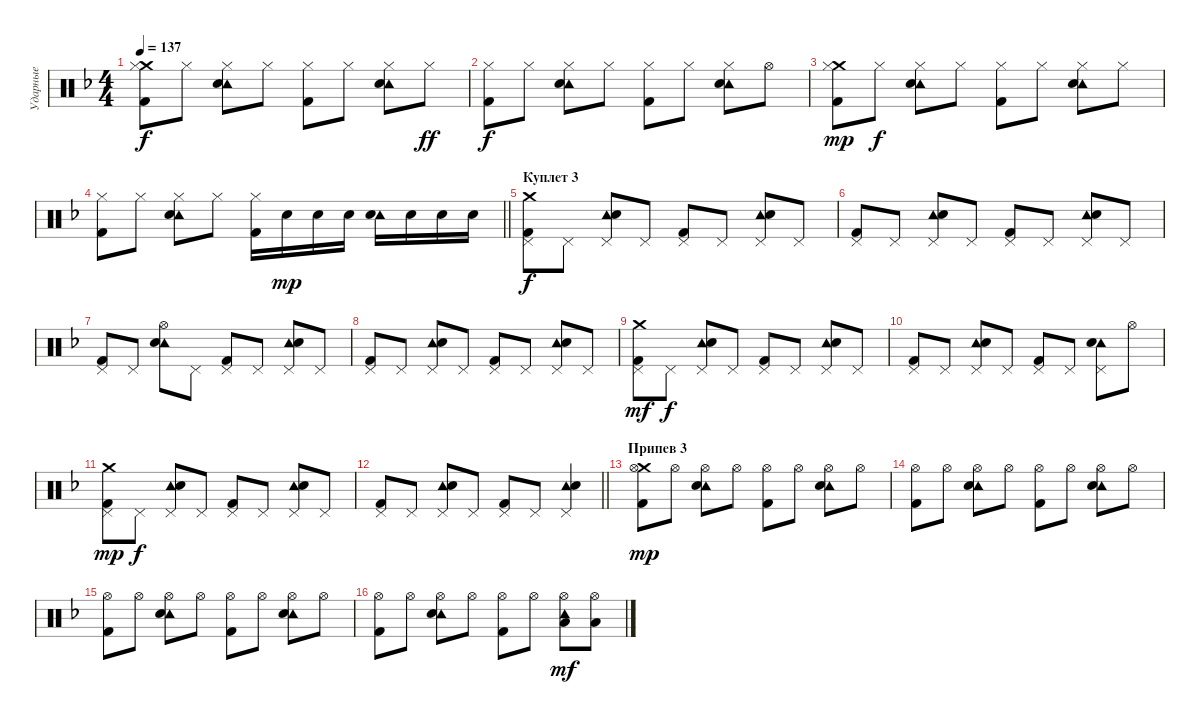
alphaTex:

\track ("Ударные" "Ударные") {instrument percussion}
\staff {score}
\articulation defaults
\ts (4 4)
\tempo 137
\clef neutral
\ks dminor
("Crash medium (hit)" "Hi-Hat (closed)" "Kick (hit) 2").8{dy f} "Hi-Hat (closed)".8 ("Tambourine (hit)" "Hi-Hat (closed)" "Electric Snare (hit)").8 "Hi-Hat (closed)".8 ("Hi-Hat (closed)" "Kick (hit) 2").8 "Hi-Hat (closed)".8 ("Tambourine (hit)" "Hi-Hat (closed)" "Electric Snare (hit)").8 "Hi-Hat (closed)".8{dy ff} |
("Hi-Hat (closed)" "Kick (hit) 2").8{dy f} "Hi-Hat (closed)".8 ("Tambourine (hit)" "Hi-Hat (closed)" "Electric Snare (hit)").8 "Hi-Hat (closed)".8 ("Hi-Hat (closed)" "Kick (hit) 2").8 "Hi-Hat (closed)".8 ("Tambourine (hit)" "Hi-Hat (closed)" "Electric Snare (hit)").8 "Hi-Hat (open)".8 |
("Crash medium (hit)" "Hi-Hat (closed)" "Kick (hit) 2").8{dy mp} "Hi-Hat (closed)".8{dy f} ("Tambourine (hit)" "Hi-Hat (closed)" "Electric Snare (hit)").8 "Hi-Hat (closed)".8 ("Hi-Hat (closed)" "Kick (hit) 2").8 "Hi-Hat (closed)".8 ("Tambourine (hit)" "Hi-Hat (closed)" "Electric Snare (hit)").8 "Hi-Hat (closed)".8 |
\barLineRight lightlight
("Hi-Hat (closed)" "Kick (hit) 2").8 "Hi-Hat (closed)".8 ("Tambourine (hit)" "Hi-Hat (closed)" "Electric Snare (hit)").8 "Hi-Hat (closed)".8 ("Hi-Hat (closed)" "Kick (hit) 2").16 "Electric Snare (hit)".16{dy mp} "Electric Snare (hit)".16 "Electric Snare (hit)".16 ("Tambourine (hit)" "Electric Snare (hit)").16 "Electric Snare (hit)".16 "Electric Snare (hit)".16 "Electric Snare (hit)".16 |
\section ("" "Куплет 3")
("Crash medium (hit)" "Pedal Hi-Hat (hit)" "Kick (hit) 2").8{dy f} "Pedal Hi-Hat (hit)".8 ("Tambourine (hit)" "Pedal Hi-Hat (hit)" "Electric Snare (hit)").8 "Pedal Hi-Hat (hit)".8 ("Pedal Hi-Hat (hit)" "Kick (hit) 2").8 "Pedal Hi-Hat (hit)".8 ("Tambourine (hit)" "Pedal Hi-Hat (hit)" "Electric Snare (hit)").8 "Pedal Hi-Hat (hit)".8 |
("Pedal Hi-Hat (hit)" "Kick (hit) 2").8 "Pedal Hi-Hat (hit)".8 ("Tambourine (hit)" "Pedal Hi-Hat (hit)" "Electric Snare (hit)").8 "Pedal Hi-Hat (hit)".8 ("Pedal Hi-Hat (hit)" "Kick (hit) 2").8 "Pedal Hi-Hat (hit)".8 ("Tambourine (hit)" "Pedal Hi-Hat (hit)" "Electric Snare (hit)").8 "Pedal Hi-Hat (hit)".8 |
("Pedal Hi-Hat (hit)" "Kick (hit) 2").8 "Pedal Hi-Hat (hit)".8 ("Tambourine (hit)" "Hi-Hat (open)" "Electric Snare (hit)").8 "Pedal Hi-Hat (hit)".8 ("Pedal Hi-Hat (hit)" "Kick (hit) 2").8 "Pedal Hi-Hat (hit)".8 ("Tambourine (hit)" "Pedal Hi-Hat (hit)" "Electric Snare (hit)").8 "Pedal Hi-Hat (hit)".8 |
("Pedal Hi-Hat (hit)" "Kick (hit) 2").8 "Pedal Hi-Hat (hit)".8 ("Tambourine (hit)" "Pedal Hi-Hat (hit)" "Electric Snare (hit)").8 "Pedal Hi-Hat (hit)".8 ("Pedal Hi-Hat (hit)" "Kick (hit) 2").8 "Pedal Hi-Hat (hit)".8 ("Tambourine (hit)" "Pedal Hi-Hat (hit)" "Electric Snare (hit)").8 "Pedal Hi-Hat (hit)".8 |
("Crash medium (hit)" "Pedal Hi-Hat (hit)" "Kick (hit) 2").8{dy mf} "Pedal Hi-Hat (hit)".8{dy f} ("Tambourine (hit)" "Pedal Hi-Hat (hit)" "Electric Snare (hit)").8 "Pedal Hi-Hat (hit)".8 ("Pedal Hi-Hat (hit)" "Kick (hit) 2").8 "Pedal Hi-Hat (hit)".8 ("Tambourine (hit)" "Pedal Hi-Hat (hit)" "Electric Snare (hit)").8 "Pedal Hi-Hat (hit)".8 |
("Pedal Hi-Hat (hit)" "Kick (hit) 2").8 "Pedal Hi-Hat (hit)".8 ("Tambourine (hit)" "Pedal Hi-Hat (hit)" "Electric Snare (hit)").8 "Pedal Hi-Hat (hit)".8 ("Pedal Hi-Hat (hit)" "Kick (hit) 2").8 "Pedal Hi-Hat (hit)".8 ("Tambourine (hit)" "Pedal Hi-Hat (hit)" "Electric Snare (hit)").8 "Hi-Hat (open)".8 |
("Crash medium (hit)" "Pedal Hi-Hat (hit)" "Kick (hit) 2").8{dy mp} "Pedal Hi-Hat (hit)".8{dy f} ("Tambourine (hit)" "Pedal Hi-Hat (hit)" "Electric Snare (hit)").8 "Pedal Hi-Hat (hit)".8 ("Pedal Hi-Hat (hit)" "Kick (hit) 2").8 "Pedal Hi-Hat (hit)".8 ("Tambourine (hit)" "Pedal Hi-Hat (hit)" "Electric Snare (hit)").8 "Pedal Hi-Hat (hit)".8 |
\barLineRight lightlight
("Pedal Hi-Hat (hit)" "Kick (hit) 2").8 "Pedal Hi-Hat (hit)".8 ("Tambourine (hit)" "Pedal Hi-Hat (hit)" "Electric Snare (hit)").8 "Pedal Hi-Hat (hit)".8 ("Pedal Hi-Hat (hit)" "Kick (hit) 2").8 "Pedal Hi-Hat (hit)".8 ("Tambourine (hit)" "Pedal Hi-Hat (hit)" "Electric Snare (hit)").4 |
\section ("" "Припев 3")
("Crash medium (hit)" "Hi-Hat (open)" "Kick (hit) 2").8{dy mp} "Hi-Hat (open)".8 ("Tambourine (hit)" "Hi-Hat (open)" "Electric Snare (hit)").8 "Hi-Hat (open)".8 ("Hi-Hat (open)" "Kick (hit) 2").8 "Hi-Hat (open)".8 ("Tambourine (hit)" "Hi-Hat (open)" "Electric Snare (hit)").8 "Hi-Hat (open)".8 |
("Hi-Hat (open)" "Kick (hit) 2").8 "Hi-Hat (open)".8 ("Tambourine (hit)" "Hi-Hat (open)" "Electric Snare (hit)").8 "Hi-Hat (open)".8 ("Hi-Hat (open)" "Kick (hit) 2").8 "Hi-Hat (open)".8 ("Tambourine (hit)" "Hi-Hat (open)" "Electric Snare (hit)").8 "Hi-Hat (open)".8 |
("Hi-Hat (open)" "Kick (hit) 2").8 "Hi-Hat (open)".8 ("Tambourine (hit)" "Hi-Hat (open)" "Electric Snare (hit)").8 "Hi-Hat (open)".8 ("Hi-Hat (open)" "Kick (hit) 2").8 "Hi-Hat (open)".8 ("Tambourine (hit)" "Hi-Hat (open)" "Electric Snare (hit)").8 "Hi-Hat (open)".8 |
("Hi-Hat (open)" "Kick (hit) 2").8 "Hi-Hat (open)".8 ("Tambourine (hit)" "Hi-Hat (open)" "Electric Snare (hit)").8 "Hi-Hat (open)".8 ("Hi-Hat (open)" "Kick (hit) 2").8 "Hi-Hat (open)".8 ("Tambourine (hit)" "Hi-Hat (open)" "Low Tom (hit)").8{dy mf} ("Hi-Hat (open)" "Low Tom (hit)").8
